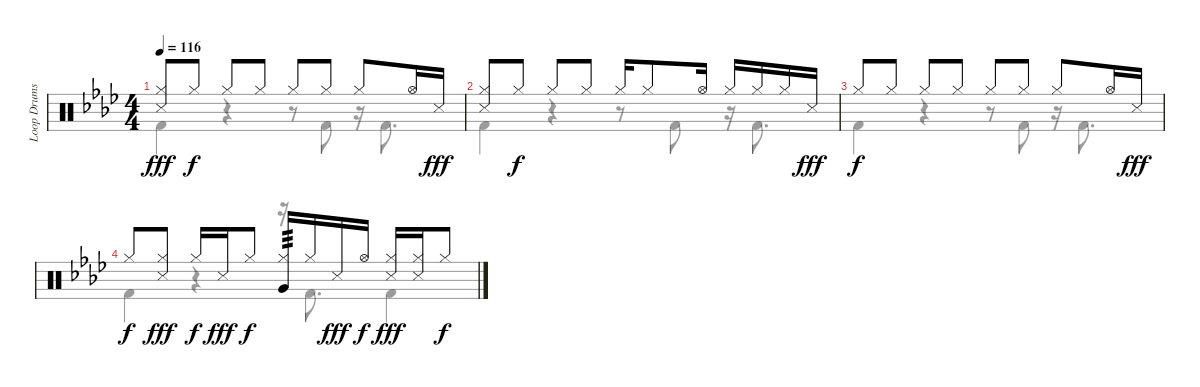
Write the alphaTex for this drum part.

\track ("Loop Drums I" "Loop Drums") {instrument percussion}
\staff {score}
\articulation defaults
\voice
\ts (4 4)
\tempo 116
\clef neutral
\ks ab
("Hi-Hat (closed)" "Snare (side stick) 3").8{dy fff} "Hi-Hat (closed)".8{dy f} "Hi-Hat (closed)".8 "Hi-Hat (closed)".8 "Hi-Hat (closed)".8 "Hi-Hat (closed)".8 "Hi-Hat (closed)".8 "Hi-Hat (open)".16 "Snare (side stick) 3".16{dy fff} |
("Hi-Hat (closed)" "Snare (side stick) 3").8 "Hi-Hat (closed)".8{dy f} "Hi-Hat (closed)".8 "Hi-Hat (closed)".8 "Hi-Hat (closed)".16 "Hi-Hat (closed)".8 "Hi-Hat (open)".16 "Hi-Hat (closed)".16 "Hi-Hat (closed)".16 "Hi-Hat (closed)".16 "Snare (side stick) 3".16{dy fff} |
"Hi-Hat (closed)".8{dy f} "Hi-Hat (closed)".8 "Hi-Hat (closed)".8 "Hi-Hat (closed)".8 "Hi-Hat (closed)".8 "Hi-Hat (closed)".8 "Hi-Hat (closed)".8 "Hi-Hat (open)".16 "Snare (side stick) 3".16{dy fff} |
"Hi-Hat (closed)".8{dy f} ("Hi-Hat (closed)" "Snare (side stick) 3").8{dy fff} "Hi-Hat (closed)".16{dy f} "Snare (side stick) 3".16{dy fff} "Hi-Hat (closed)".8{dy f} ("Hi-Hat (closed)" "Very Low Tom (hit)").16{tp 3} "Hi-Hat (closed)".16 "Snare (side stick) 3".16{dy fff} "Hi-Hat (open)".16{dy f} ("Hi-Hat (closed)" "Snare (side stick) 3").16{dy fff} ("Hi-Hat (closed)" "Snare (side stick) 3").16 "Hi-Hat (closed)".8{dy f}
\voice
\clef neutral
\ottava regular
\simile none
\ks ab "Kick (hit) 2".4{dy fff}
r.4 r.8 "Kick (hit) 2".8 r.16 "Kick (hit) 2".8{d} |
"Kick (hit) 2".4 r.4 r.8 "Kick (hit) 2".8 r.16 "Kick (hit) 2".8{d} |
"Kick (hit) 2".4 r.4 r.8 "Kick (hit) 2".8 r.16 "Kick (hit) 2".8{d} |
"Kick (hit) 2".4 r.4 r.16 "Kick (hit) 2".8{d} "Kick (hit) 2".4
